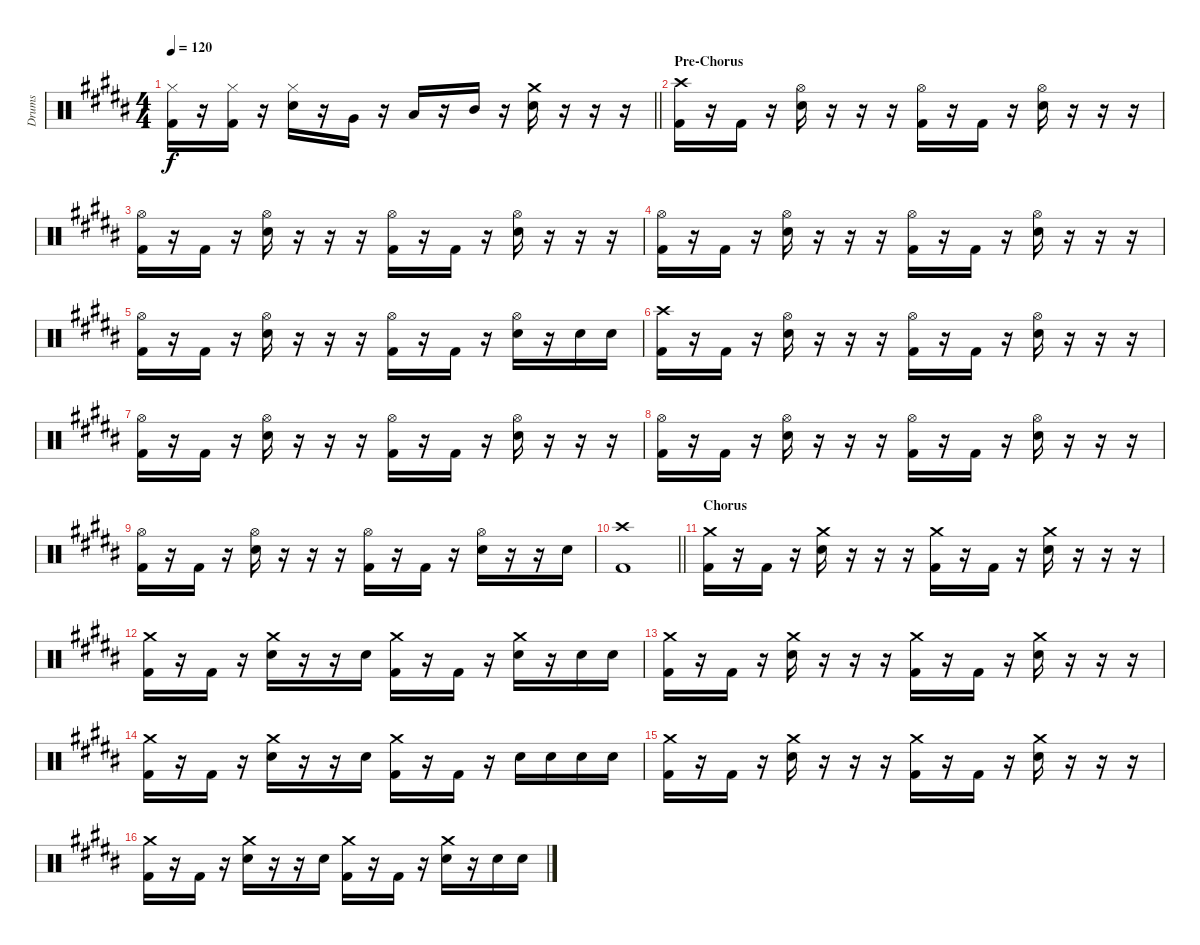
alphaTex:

\track ("Drums" "Drums") {instrument percussion}
\staff {score}
\articulation defaults
\ts (4 4)
\tempo 120
\clef neutral
\barLineRight lightlight
\ks b
("Hi-Hat (closed)" "Kick (hit) 2").16{dy f} r.16 ("Hi-Hat (closed)" "Kick (hit) 2").16 r.16 ("Hi-Hat (closed)" "Snare (hit) 2").16 r.16 "Very Low Tom (hit)".16 r.16 "Low Tom (hit)".16 r.16 "Mid Tom (hit)".16 r.16 ("Crash medium (hit)" "Snare (hit) 2").16 r.16 r.16 r.16 |
\section ("" "Pre-Chorus")
("Crash high (hit)" "Kick (hit) 2").16 r.16 "Kick (hit) 2".16 r.16 ("Hi-Hat (open)" "Snare (hit) 2").16 r.16 r.16 r.16 ("Hi-Hat (open)" "Kick (hit) 2").16 r.16 "Kick (hit) 2".16 r.16 ("Hi-Hat (open)" "Snare (hit) 2").16 r.16 r.16 r.16 |
("Hi-Hat (open)" "Kick (hit) 2").16 r.16 "Kick (hit) 2".16 r.16 ("Hi-Hat (open)" "Snare (hit) 2").16 r.16 r.16 r.16 ("Hi-Hat (open)" "Kick (hit) 2").16 r.16 "Kick (hit) 2".16 r.16 ("Hi-Hat (open)" "Snare (hit) 2").16 r.16 r.16 r.16 |
("Hi-Hat (open)" "Kick (hit) 2").16 r.16 "Kick (hit) 2".16 r.16 ("Hi-Hat (open)" "Snare (hit) 2").16 r.16 r.16 r.16 ("Hi-Hat (open)" "Kick (hit) 2").16 r.16 "Kick (hit) 2".16 r.16 ("Hi-Hat (open)" "Snare (hit) 2").16 r.16 r.16 r.16 |
("Hi-Hat (open)" "Kick (hit) 2").16 r.16 "Kick (hit) 2".16 r.16 ("Hi-Hat (open)" "Snare (hit) 2").16 r.16 r.16 r.16 ("Hi-Hat (open)" "Kick (hit) 2").16 r.16 "Kick (hit) 2".16 r.16 ("Hi-Hat (open)" "Snare (hit) 2").16 r.16 "Snare (hit) 2".16 "Snare (hit) 2".16 |
("Crash high (hit)" "Kick (hit) 2").16 r.16 "Kick (hit) 2".16 r.16 ("Hi-Hat (open)" "Snare (hit) 2").16 r.16 r.16 r.16 ("Hi-Hat (open)" "Kick (hit) 2").16 r.16 "Kick (hit) 2".16 r.16 ("Hi-Hat (open)" "Snare (hit) 2").16 r.16 r.16 r.16 |
("Hi-Hat (open)" "Kick (hit) 2").16 r.16 "Kick (hit) 2".16 r.16 ("Hi-Hat (open)" "Snare (hit) 2").16 r.16 r.16 r.16 ("Hi-Hat (open)" "Kick (hit) 2").16 r.16 "Kick (hit) 2".16 r.16 ("Hi-Hat (open)" "Snare (hit) 2").16 r.16 r.16 r.16 |
("Hi-Hat (open)" "Kick (hit) 2").16 r.16 "Kick (hit) 2".16 r.16 ("Hi-Hat (open)" "Snare (hit) 2").16 r.16 r.16 r.16 ("Hi-Hat (open)" "Kick (hit) 2").16 r.16 "Kick (hit) 2".16 r.16 ("Hi-Hat (open)" "Snare (hit) 2").16 r.16 r.16 r.16 |
("Hi-Hat (open)" "Kick (hit) 2").16 r.16 "Kick (hit) 2".16 r.16 ("Hi-Hat (open)" "Snare (hit) 2").16 r.16 r.16 r.16 ("Hi-Hat (open)" "Kick (hit) 2").16 r.16 "Kick (hit) 2".16 r.16 ("Hi-Hat (open)" "Snare (hit) 2").16 r.16 r.16 "Snare (hit) 2".16 |
\barLineRight lightlight
("Crash high (hit)" "Kick (hit) 2").1 |
\section ("" "Chorus")
("Crash medium (hit)" "Kick (hit) 2").16 r.16 "Kick (hit) 2".16 r.16 ("Crash medium (hit)" "Snare (hit) 2").16 r.16 r.16 r.16 ("Crash medium (hit)" "Kick (hit) 2").16 r.16 "Kick (hit) 2".16 r.16 ("Crash medium (hit)" "Snare (hit) 2").16 r.16 r.16 r.16 |
("Crash medium (hit)" "Kick (hit) 2").16 r.16 "Kick (hit) 2".16 r.16 ("Crash medium (hit)" "Snare (hit) 2").16 r.16 r.16 "Snare (hit) 2".16 ("Crash medium (hit)" "Kick (hit) 2").16 r.16 "Kick (hit) 2".16 r.16 ("Crash medium (hit)" "Snare (hit) 2").16 r.16 "Snare (hit) 2".16 "Snare (hit) 2".16 |
("Crash medium (hit)" "Kick (hit) 2").16 r.16 "Kick (hit) 2".16 r.16 ("Crash medium (hit)" "Snare (hit) 2").16 r.16 r.16 r.16 ("Crash medium (hit)" "Kick (hit) 2").16 r.16 "Kick (hit) 2".16 r.16 ("Crash medium (hit)" "Snare (hit) 2").16 r.16 r.16 r.16 |
("Crash medium (hit)" "Kick (hit) 2").16 r.16 "Kick (hit) 2".16 r.16 ("Crash medium (hit)" "Snare (hit) 2").16 r.16 r.16 "Snare (hit) 2".16 ("Crash medium (hit)" "Kick (hit) 2").16 r.16 "Kick (hit) 2".16 r.16 "Snare (hit) 2".16 "Snare (hit) 2".16 "Snare (hit) 2".16 "Snare (hit) 2".16 |
("Crash medium (hit)" "Kick (hit) 2").16 r.16 "Kick (hit) 2".16 r.16 ("Crash medium (hit)" "Snare (hit) 2").16 r.16 r.16 r.16 ("Crash medium (hit)" "Kick (hit) 2").16 r.16 "Kick (hit) 2".16 r.16 ("Crash medium (hit)" "Snare (hit) 2").16 r.16 r.16 r.16 |
("Crash medium (hit)" "Kick (hit) 2").16 r.16 "Kick (hit) 2".16 r.16 ("Crash medium (hit)" "Snare (hit) 2").16 r.16 r.16 "Snare (hit) 2".16 ("Crash medium (hit)" "Kick (hit) 2").16 r.16 "Kick (hit) 2".16 r.16 ("Crash medium (hit)" "Snare (hit) 2").16 r.16 "Snare (hit) 2".16 "Snare (hit) 2".16
